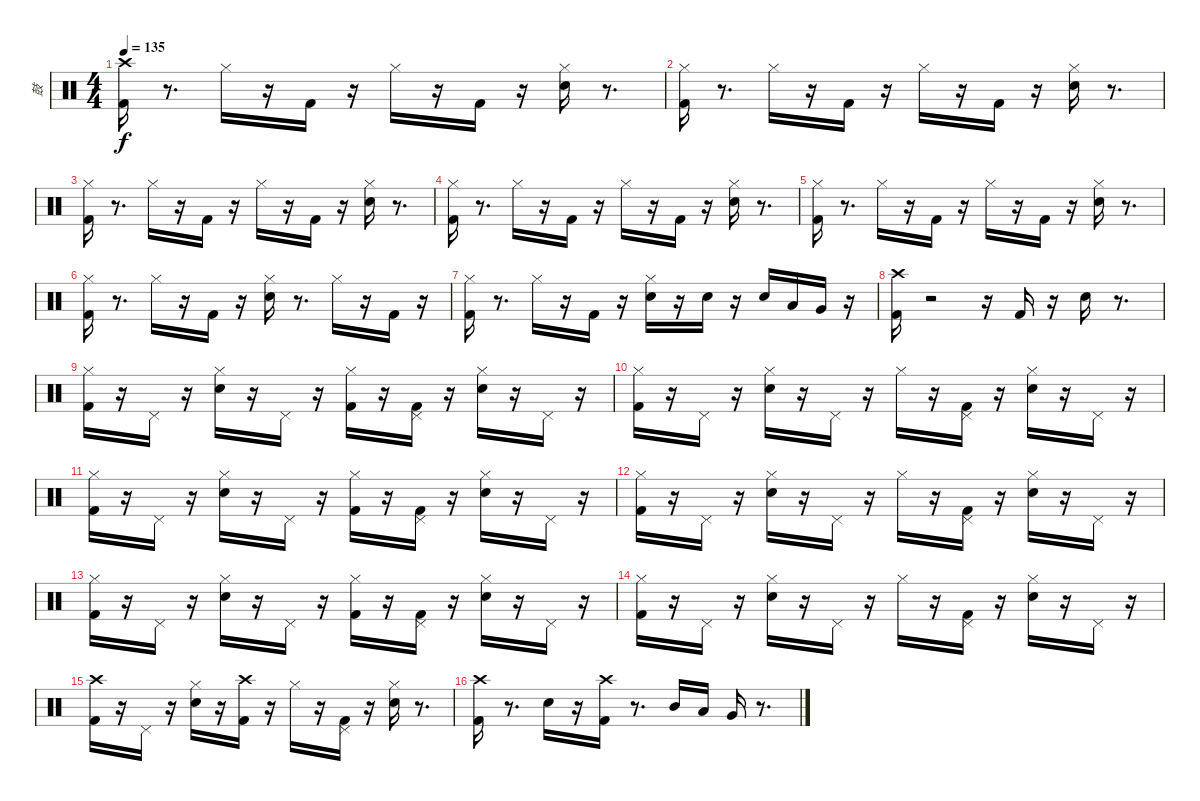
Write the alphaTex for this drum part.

\track ("鼓" "鼓") {instrument percussion}
\staff {score}
\articulation defaults
\ts (4 4)
\tempo 135
\clef neutral
\ks c
("Crash high (hit)" "Kick (hit) 2").16{dy f} r.8{d} "Hi-Hat (closed)".16 r.16 "Kick (hit) 2".16 r.16 "Hi-Hat (closed)".16 r.16 "Kick (hit) 2".16 r.16 ("Electric Snare (hit)" "Hi-Hat (closed)").16 r.8{d} |
("Hi-Hat (closed)" "Kick (hit) 2").16 r.8{d} "Hi-Hat (closed)".16 r.16 "Kick (hit) 2".16 r.16 "Hi-Hat (closed)".16 r.16 "Kick (hit) 2".16 r.16 ("Hi-Hat (closed)" "Electric Snare (hit)").16 r.8{d} |
("Hi-Hat (closed)" "Kick (hit) 2").16 r.8{d} "Hi-Hat (closed)".16 r.16 "Kick (hit) 2".16 r.16 "Hi-Hat (closed)".16 r.16 "Kick (hit) 2".16 r.16 ("Electric Snare (hit)" "Hi-Hat (closed)").16 r.8{d} |
("Hi-Hat (closed)" "Kick (hit) 2").16 r.8{d} "Hi-Hat (closed)".16 r.16 "Kick (hit) 2".16 r.16 "Hi-Hat (closed)".16 r.16 "Kick (hit) 2".16 r.16 ("Hi-Hat (closed)" "Electric Snare (hit)").16 r.8{d} |
("Hi-Hat (closed)" "Kick (hit) 2").16 r.8{d} "Hi-Hat (closed)".16 r.16 "Kick (hit) 2".16 r.16 "Hi-Hat (closed)".16 r.16 "Kick (hit) 2".16 r.16 ("Hi-Hat (closed)" "Electric Snare (hit)").16 r.8{d} |
("Kick (hit) 2" "Hi-Hat (closed)").16 r.8{d} "Hi-Hat (closed)".16 r.16 "Kick (hit) 2".16 r.16 ("Electric Snare (hit)" "Hi-Hat (closed)").16 r.8{d} "Hi-Hat (closed)".16 r.16 "Kick (hit) 2".16 r.16 |
("Hi-Hat (closed)" "Kick (hit) 2").16 r.8{d} "Hi-Hat (closed)".16 r.16 "Kick (hit) 2".16 r.16 ("Hi-Hat (closed)" "Electric Snare (hit)").16 r.16 "Electric Snare (hit)".16 r.16 "Electric Snare (hit)".16 "Low Tom (hit)".16 "Very Low Tom (hit)".16 r.16 |
("Crash high (hit)" "Kick (hit) 2").16 r.2 r.16 "Kick (hit) 2".16 r.16 "Electric Snare (hit)".16 r.8{d} |
("Hi-Hat (closed)" "Kick (hit) 2").16 r.16 "Pedal Hi-Hat (hit)".16 r.16 ("Hi-Hat (closed)" "Electric Snare (hit)").16 r.16 "Pedal Hi-Hat (hit)".16 r.16 ("Kick (hit) 2" "Hi-Hat (closed)").16 r.16 ("Kick (hit) 2" "Pedal Hi-Hat (hit)").16 r.16 ("Electric Snare (hit)" "Hi-Hat (closed)").16 r.16 "Pedal Hi-Hat (hit)".16 r.16 |
("Hi-Hat (closed)" "Kick (hit) 2").16 r.16 "Pedal Hi-Hat (hit)".16 r.16 ("Electric Snare (hit)" "Hi-Hat (closed)").16 r.16 "Pedal Hi-Hat (hit)".16 r.16 "Hi-Hat (closed)".16 r.16 ("Pedal Hi-Hat (hit)" "Kick (hit) 2").16 r.16 ("Hi-Hat (closed)" "Electric Snare (hit)").16 r.16 "Pedal Hi-Hat (hit)".16 r.16 |
("Hi-Hat (closed)" "Kick (hit) 2").16 r.16 "Pedal Hi-Hat (hit)".16 r.16 ("Electric Snare (hit)" "Hi-Hat (closed)").16 r.16 "Pedal Hi-Hat (hit)".16 r.16 ("Hi-Hat (closed)" "Kick (hit) 2").16 r.16 ("Pedal Hi-Hat (hit)" "Kick (hit) 2").16 r.16 ("Hi-Hat (closed)" "Electric Snare (hit)").16 r.16 "Pedal Hi-Hat (hit)".16 r.16 |
("Kick (hit) 2" "Hi-Hat (closed)").16 r.16 "Pedal Hi-Hat (hit)".16 r.16 ("Hi-Hat (closed)" "Electric Snare (hit)").16 r.16 "Pedal Hi-Hat (hit)".16 r.16 "Hi-Hat (closed)".16 r.16 ("Kick (hit) 2" "Pedal Hi-Hat (hit)").16 r.16 ("Electric Snare (hit)" "Hi-Hat (closed)").16 r.16 "Pedal Hi-Hat (hit)".16 r.16 |
("Hi-Hat (closed)" "Kick (hit) 2").16 r.16 "Pedal Hi-Hat (hit)".16 r.16 ("Hi-Hat (closed)" "Electric Snare (hit)").16 r.16 "Pedal Hi-Hat (hit)".16 r.16 ("Kick (hit) 2" "Hi-Hat (closed)").16 r.16 ("Kick (hit) 2" "Pedal Hi-Hat (hit)").16 r.16 ("Electric Snare (hit)" "Hi-Hat (closed)").16 r.16 "Pedal Hi-Hat (hit)".16 r.16 |
("Hi-Hat (closed)" "Kick (hit) 2").16 r.16 "Pedal Hi-Hat (hit)".16 r.16 ("Electric Snare (hit)" "Hi-Hat (closed)").16 r.16 "Pedal Hi-Hat (hit)".16 r.16 "Hi-Hat (closed)".16 r.16 ("Pedal Hi-Hat (hit)" "Kick (hit) 2").16 r.16 ("Hi-Hat (closed)" "Electric Snare (hit)").16 r.16 "Pedal Hi-Hat (hit)".16 r.16 |
("Crash high (hit)" "Kick (hit) 2").16 r.16 "Pedal Hi-Hat (hit)".16 r.16 ("Electric Snare (hit)" "Hi-Hat (closed)").16 r.16 ("Crash high (hit)" "Kick (hit) 2").16 r.16 "Hi-Hat (closed)".16 r.16 ("Pedal Hi-Hat (hit)" "Kick (hit) 2").16 r.16 ("Hi-Hat (closed)" "Electric Snare (hit)").16 r.8{d} |
("Crash high (hit)" "Kick (hit) 2").16 r.8{d} "Electric Snare (hit)".16 r.16 ("Crash high (hit)" "Kick (hit) 2").16 r.8{d} "Mid Tom (hit)".16 "Low Tom (hit)".16 "Very Low Tom (hit)".16 r.8{d}
